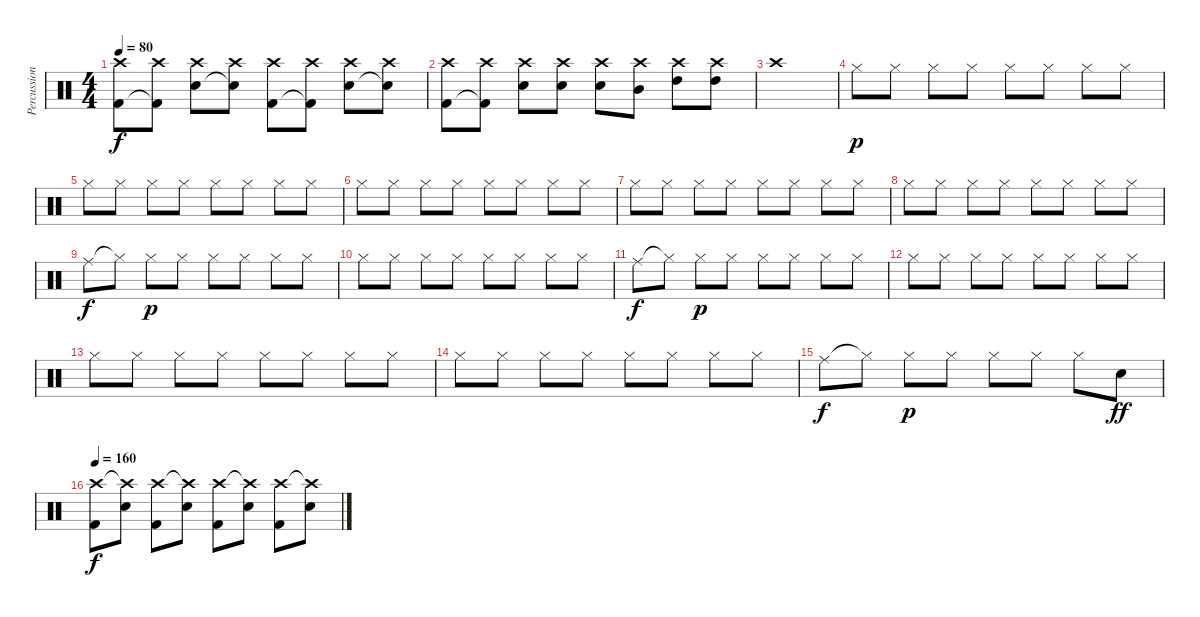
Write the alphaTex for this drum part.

\track ("Percussions" "Percussion") {instrument percussion}
\staff {score}
\articulation defaults
\ts (4 4)
\tempo 80
\clef neutral
\ks c
("Crash high (hit)" "Kick (hit) 2").8{dy f} ("Crash high (hit)" "Kick (hit) 2"{t}).8 ("Crash high (hit)" "Electric Snare (hit)").8 ("Crash high (hit)" "Snare (hit)"{t}).8 ("Crash high (hit)" "Kick (hit) 2").8 ("Crash high (hit)" "Kick (hit) 2"{t}).8 ("Crash high (hit)" "Electric Snare (hit)").8 ("Crash high (hit)" "Snare (hit)"{t}).8 |
("Crash high (hit)" "Kick (hit) 2").8 ("Crash high (hit)" "Kick (hit) 2"{t}).8 ("Crash high (hit)" "Electric Snare (hit)").8 ("Crash high (hit)" "Electric Snare (hit)").8 ("Crash high (hit)" "Electric Snare (hit)").8 ("Crash high (hit)" "Mid Tom (hit)").8 ("Crash high (hit)" "High Tom (hit)").8 ("Crash high (hit)" "High Tom (hit)").8 |
"Crash high (hit)".1 |
"Hi-Hat (closed)".8{dy p volume 9} "Hi-Hat (closed)".8 "Hi-Hat (closed)".8 "Hi-Hat (closed)".8 "Hi-Hat (closed)".8 "Hi-Hat (closed)".8 "Hi-Hat (closed)".8 "Hi-Hat (closed)".8 |
"Hi-Hat (closed)".8 "Hi-Hat (closed)".8 "Hi-Hat (closed)".8 "Hi-Hat (closed)".8 "Hi-Hat (closed)".8 "Hi-Hat (closed)".8 "Hi-Hat (closed)".8 "Hi-Hat (closed)".8 |
"Hi-Hat (closed)".8 "Hi-Hat (closed)".8 "Hi-Hat (closed)".8 "Hi-Hat (closed)".8 "Hi-Hat (closed)".8 "Hi-Hat (closed)".8 "Hi-Hat (closed)".8 "Hi-Hat (closed)".8 |
"Hi-Hat (closed)".8 "Hi-Hat (closed)".8 "Hi-Hat (closed)".8 "Hi-Hat (closed)".8 "Hi-Hat (closed)".8 "Hi-Hat (closed)".8 "Hi-Hat (closed)".8 "Hi-Hat (closed)".8 |
"Hi-Hat (closed)".8 "Hi-Hat (closed)".8 "Hi-Hat (closed)".8 "Hi-Hat (closed)".8 "Hi-Hat (closed)".8 "Hi-Hat (closed)".8 "Hi-Hat (closed)".8 "Hi-Hat (closed)".8 |
"Ride (middle)".8{dy f} "Hi-Hat (closed)"{t}.8 "Hi-Hat (closed)".8{dy p} "Hi-Hat (closed)".8 "Hi-Hat (closed)".8 "Hi-Hat (closed)".8 "Hi-Hat (closed)".8 "Hi-Hat (closed)".8 |
"Hi-Hat (closed)".8 "Hi-Hat (closed)".8 "Hi-Hat (closed)".8 "Hi-Hat (closed)".8 "Hi-Hat (closed)".8 "Hi-Hat (closed)".8 "Hi-Hat (closed)".8 "Hi-Hat (closed)".8 |
"Ride (middle)".8{dy f} "Hi-Hat (closed)"{t}.8 "Hi-Hat (closed)".8{dy p} "Hi-Hat (closed)".8 "Hi-Hat (closed)".8 "Hi-Hat (closed)".8 "Hi-Hat (closed)".8 "Hi-Hat (closed)".8 |
"Hi-Hat (closed)".8 "Hi-Hat (closed)".8 "Hi-Hat (closed)".8 "Hi-Hat (closed)".8 "Hi-Hat (closed)".8 "Hi-Hat (closed)".8 "Hi-Hat (closed)".8 "Hi-Hat (closed)".8 |
"Hi-Hat (closed)".8 "Hi-Hat (closed)".8 "Hi-Hat (closed)".8 "Hi-Hat (closed)".8 "Hi-Hat (closed)".8 "Hi-Hat (closed)".8 "Hi-Hat (closed)".8 "Hi-Hat (closed)".8 |
"Hi-Hat (closed)".8 "Hi-Hat (closed)".8 "Hi-Hat (closed)".8 "Hi-Hat (closed)".8 "Hi-Hat (closed)".8 "Hi-Hat (closed)".8 "Hi-Hat (closed)".8 "Hi-Hat (closed)".8 |
"Ride (middle)".8{dy f} "Hi-Hat (closed)"{t}.8 "Hi-Hat (closed)".8{dy p} "Hi-Hat (closed)".8 "Hi-Hat (closed)".8 "Hi-Hat (closed)".8 "Hi-Hat (closed)".8 "Electric Snare (hit)".8{dy ff} |
\tempo 160
("Crash high (hit)" "Kick (hit) 2").8{dy f} ("Crash high (hit)"{t} "Electric Snare (hit)").8 ("Crash high (hit)" "Kick (hit) 2").8 ("Crash high (hit)"{t} "Electric Snare (hit)").8 ("Crash high (hit)" "Kick (hit) 2").8 ("Crash high (hit)"{t} "Electric Snare (hit)").8 ("Crash high (hit)" "Kick (hit) 2").8 ("Crash high (hit)"{t} "Electric Snare (hit)").8
